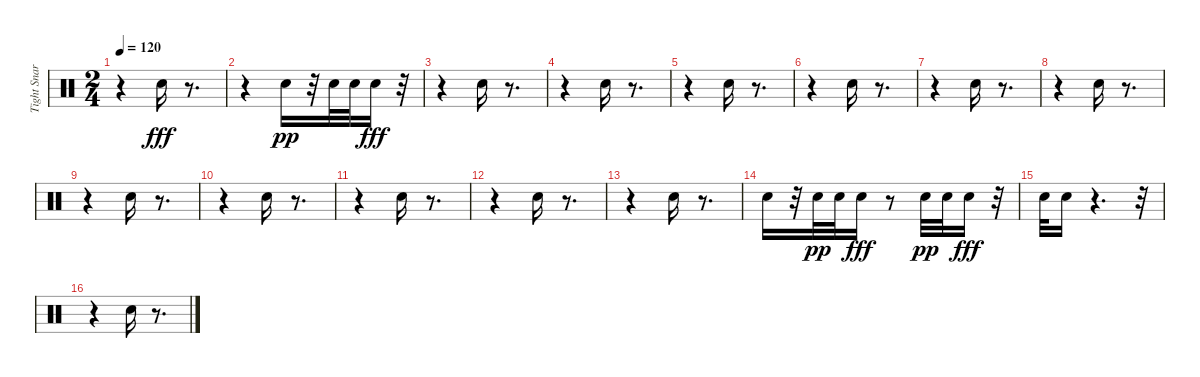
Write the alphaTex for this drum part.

\track ("Tight Snare (1) (1) (1) (1)" "Tight Snar") {instrument percussion}
\staff {score}
\articulation defaults
\ts (2 4)
\tempo 120
\clef neutral
\ks c
r.4{dy fff} "Electric Snare (hit)".16 r.8{d} |
r.4 "Electric Snare (hit)".16{dy pp} r.32 "Electric Snare (hit)".32 "Electric Snare (hit)".32 "Electric Snare (hit)".16{dy fff} r.32 |
r.4 "Electric Snare (hit)".16 r.8{d} |
r.4 "Electric Snare (hit)".16 r.8{d} |
r.4 "Electric Snare (hit)".16 r.8{d} |
r.4 "Electric Snare (hit)".16 r.8{d} |
r.4 "Electric Snare (hit)".16 r.8{d} |
r.4 "Electric Snare (hit)".16 r.8{d} |
r.4 "Electric Snare (hit)".16 r.8{d} |
r.4 "Electric Snare (hit)".16 r.8{d} |
r.4 "Electric Snare (hit)".16 r.8{d} |
r.4 "Electric Snare (hit)".16 r.8{d} |
r.4 "Electric Snare (hit)".16 r.8{d} |
"Electric Snare (hit)".16 r.32 "Electric Snare (hit)".32{dy pp} "Electric Snare (hit)".32 "Electric Snare (hit)".16{dy fff} r.8 "Electric Snare (hit)".32{dy pp} "Electric Snare (hit)".32 "Electric Snare (hit)".16{dy fff} r.32 |
"Electric Snare (hit)".32 "Electric Snare (hit)".16 r.4{d} r.32 |
r.4 "Electric Snare (hit)".16 r.8{d}
